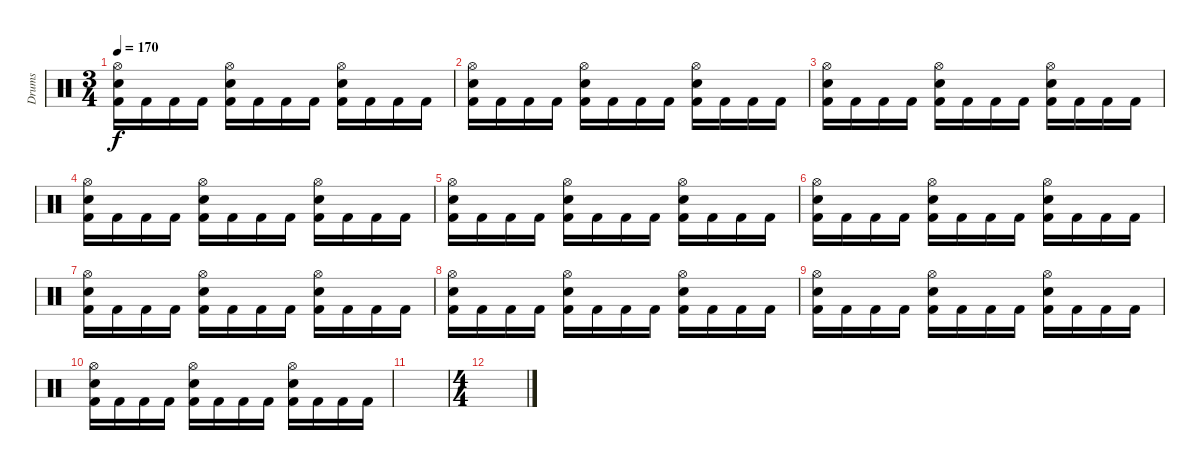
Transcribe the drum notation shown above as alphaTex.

\track ("Drums" "Drums") {instrument percussion}
\staff {score}
\articulation defaults
\ts (3 4)
\tempo 170
\clef neutral
\ks c
("Hi-Hat (open)" "Electric Snare (hit)" "Kick (hit) 2").16{dy f} "Kick (hit) 2".16 "Kick (hit) 2".16 "Kick (hit) 2".16 ("Hi-Hat (open)" "Electric Snare (hit)" "Kick (hit) 2").16 "Kick (hit) 2".16 "Kick (hit) 2".16 "Kick (hit) 2".16 ("Hi-Hat (open)" "Electric Snare (hit)" "Kick (hit) 2").16 "Kick (hit) 2".16 "Kick (hit) 2".16 "Kick (hit) 2".16 |
("Hi-Hat (open)" "Electric Snare (hit)" "Kick (hit) 2").16 "Kick (hit) 2".16 "Kick (hit) 2".16 "Kick (hit) 2".16 ("Hi-Hat (open)" "Electric Snare (hit)" "Kick (hit) 2").16 "Kick (hit) 2".16 "Kick (hit) 2".16 "Kick (hit) 2".16 ("Hi-Hat (open)" "Electric Snare (hit)" "Kick (hit) 2").16 "Kick (hit) 2".16 "Kick (hit) 2".16 "Kick (hit) 2".16 |
("Hi-Hat (open)" "Electric Snare (hit)" "Kick (hit) 2").16 "Kick (hit) 2".16 "Kick (hit) 2".16 "Kick (hit) 2".16 ("Hi-Hat (open)" "Electric Snare (hit)" "Kick (hit) 2").16 "Kick (hit) 2".16 "Kick (hit) 2".16 "Kick (hit) 2".16 ("Hi-Hat (open)" "Electric Snare (hit)" "Kick (hit) 2").16 "Kick (hit) 2".16 "Kick (hit) 2".16 "Kick (hit) 2".16 |
("Hi-Hat (open)" "Electric Snare (hit)" "Kick (hit) 2").16 "Kick (hit) 2".16 "Kick (hit) 2".16 "Kick (hit) 2".16 ("Hi-Hat (open)" "Electric Snare (hit)" "Kick (hit) 2").16 "Kick (hit) 2".16 "Kick (hit) 2".16 "Kick (hit) 2".16 ("Hi-Hat (open)" "Electric Snare (hit)" "Kick (hit) 2").16 "Kick (hit) 2".16 "Kick (hit) 2".16 "Kick (hit) 2".16 |
("Hi-Hat (open)" "Electric Snare (hit)" "Kick (hit) 2").16 "Kick (hit) 2".16 "Kick (hit) 2".16 "Kick (hit) 2".16 ("Hi-Hat (open)" "Electric Snare (hit)" "Kick (hit) 2").16 "Kick (hit) 2".16 "Kick (hit) 2".16 "Kick (hit) 2".16 ("Hi-Hat (open)" "Electric Snare (hit)" "Kick (hit) 2").16 "Kick (hit) 2".16 "Kick (hit) 2".16 "Kick (hit) 2".16 |
("Hi-Hat (open)" "Electric Snare (hit)" "Kick (hit) 2").16 "Kick (hit) 2".16 "Kick (hit) 2".16 "Kick (hit) 2".16 ("Hi-Hat (open)" "Electric Snare (hit)" "Kick (hit) 2").16 "Kick (hit) 2".16 "Kick (hit) 2".16 "Kick (hit) 2".16 ("Hi-Hat (open)" "Electric Snare (hit)" "Kick (hit) 2").16 "Kick (hit) 2".16 "Kick (hit) 2".16 "Kick (hit) 2".16 |
("Hi-Hat (open)" "Electric Snare (hit)" "Kick (hit) 2").16 "Kick (hit) 2".16 "Kick (hit) 2".16 "Kick (hit) 2".16 ("Hi-Hat (open)" "Electric Snare (hit)" "Kick (hit) 2").16 "Kick (hit) 2".16 "Kick (hit) 2".16 "Kick (hit) 2".16 ("Hi-Hat (open)" "Electric Snare (hit)" "Kick (hit) 2").16 "Kick (hit) 2".16 "Kick (hit) 2".16 "Kick (hit) 2".16 |
("Hi-Hat (open)" "Electric Snare (hit)" "Kick (hit) 2").16 "Kick (hit) 2".16 "Kick (hit) 2".16 "Kick (hit) 2".16 ("Hi-Hat (open)" "Electric Snare (hit)" "Kick (hit) 2").16 "Kick (hit) 2".16 "Kick (hit) 2".16 "Kick (hit) 2".16 ("Hi-Hat (open)" "Electric Snare (hit)" "Kick (hit) 2").16 "Kick (hit) 2".16 "Kick (hit) 2".16 "Kick (hit) 2".16 |
("Hi-Hat (open)" "Electric Snare (hit)" "Kick (hit) 2").16 "Kick (hit) 2".16 "Kick (hit) 2".16 "Kick (hit) 2".16 ("Hi-Hat (open)" "Electric Snare (hit)" "Kick (hit) 2").16 "Kick (hit) 2".16 "Kick (hit) 2".16 "Kick (hit) 2".16 ("Hi-Hat (open)" "Electric Snare (hit)" "Kick (hit) 2").16 "Kick (hit) 2".16 "Kick (hit) 2".16 "Kick (hit) 2".16 |
("Hi-Hat (open)" "Electric Snare (hit)" "Kick (hit) 2").16 "Kick (hit) 2".16 "Kick (hit) 2".16 "Kick (hit) 2".16 ("Hi-Hat (open)" "Electric Snare (hit)" "Kick (hit) 2").16 "Kick (hit) 2".16 "Kick (hit) 2".16 "Kick (hit) 2".16 ("Hi-Hat (open)" "Electric Snare (hit)" "Kick (hit) 2").16 "Kick (hit) 2".16 "Kick (hit) 2".16 "Kick (hit) 2".16 |
|
\ts (4 4)
